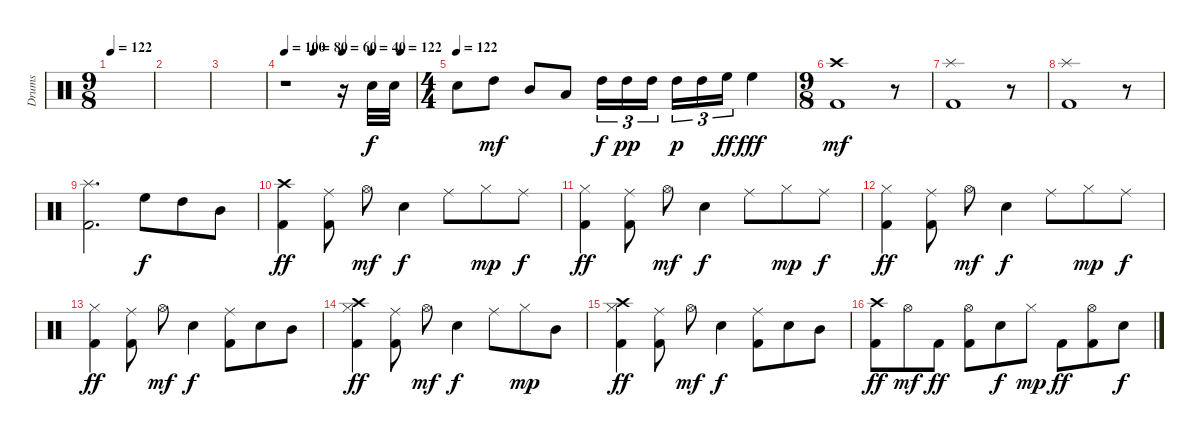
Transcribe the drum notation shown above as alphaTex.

\track ("Drums" "Drums") {instrument percussion}
\staff {score}
\articulation defaults
\ts (9 8)
\tempo 122
\clef neutral
\ks c
|
|
|
\tempo 100
\tempo (80 0.2222222222222222)
\tempo (60 0.4444444444444444)
\tempo (40 0.6666666666666666)
\tempo (122 0.8888888888888888)
r.1 r.16 "Electric Snare (hit)".32 "Electric Snare (hit)".32 |
\ts (4 4)
\tempo (122)
"Electric Snare (hit)".8{dy f} "High Tom (hit)".8{dy mf} "Mid Tom (hit)".8 "Low Tom (hit)".8 "High Tom (hit)".16{tu (3 2) dy f} "High Tom (hit)".16{tu (3 2) dy pp} "High Tom (hit)".16{tu (3 2)} "High Tom (hit)".16{tu (3 2) dy p} "High Tom (hit)".16{tu (3 2)} "High Floor Tom (hit)".16{tu (3 2) dy ff} "High Floor Tom (hit)".4{dy fff} |
\ts (9 8)
("Crash high (hit)" "Kick (hit) 2").1{dy mf} r.8 |
("Splash (hit)" "Kick (hit) 2").1 r.8 |
("Splash (hit)" "Kick (hit) 2").1 r.8 |
("Splash (hit)" "Kick (hit) 2").2{d} "High Floor Tom (hit)".8{dy f} "High Tom (hit)".8 "Mid Tom (hit)".8 |
("Crash high (hit)" "Kick (hit) 2").4{dy ff} ("Ride (middle)" "Kick (hit) 2").8 "Hi-Hat (open)".8{dy mf} "Electric Snare (hit)".4{dy f} "Ride (middle)".8 "Hi-Hat (closed)".8{dy mp} "Ride (middle)".8{dy f} |
("Hi-Hat (closed)" "Kick (hit) 2").4{dy ff} ("Ride (middle)" "Kick (hit) 2").8 "Hi-Hat (open)".8{dy mf} "Electric Snare (hit)".4{dy f} "Ride (middle)".8 "Hi-Hat (closed)".8{dy mp} "Ride (middle)".8{dy f} |
("Hi-Hat (closed)" "Kick (hit) 2").4{dy ff} ("Ride (middle)" "Kick (hit) 2").8 "Hi-Hat (open)".8{dy mf} "Electric Snare (hit)".4{dy f} "Ride (middle)".8 "Hi-Hat (closed)".8{dy mp} "Ride (middle)".8{dy f} |
("Hi-Hat (closed)" "Kick (hit) 2").4{dy ff} ("Ride (middle)" "Kick (hit) 2").8 "Hi-Hat (open)".8{dy mf} "Electric Snare (hit)".4{dy f} ("Ride (middle)" "Kick (hit) 2").8 "Electric Snare (hit)".8 "Mid Tom (hit)".8 |
("Crash high (hit)" "Hi-Hat (closed)" "Kick (hit) 2").4{dy ff} ("Ride (middle)" "Kick (hit) 2").8 "Hi-Hat (open)".8{dy mf} "Electric Snare (hit)".4{dy f} "Ride (middle)".8 "Hi-Hat (closed)".8{dy mp} "Mid Tom (hit)".8 |
("Crash high (hit)" "Hi-Hat (closed)" "Kick (hit) 2").4{dy ff} ("Ride (middle)" "Kick (hit) 2").8 "Hi-Hat (open)".8{dy mf} "Electric Snare (hit)".4{dy f} ("Ride (middle)" "Kick (hit) 2").8 "Electric Snare (hit)".8 "Mid Tom (hit)".8 |
("Crash high (hit)" "Kick (hit) 2").8{dy ff} "Hi-Hat (open)".8{dy mf} "Kick (hit) 2".8{dy ff} ("Hi-Hat (open)" "Kick (hit) 2").8 "Electric Snare (hit)".8{dy f} "Hi-Hat (closed)".8{dy mp} "Kick (hit) 2".8{dy ff} ("Hi-Hat (open)" "Kick (hit) 2").8 "Electric Snare (hit)".8{dy f}
